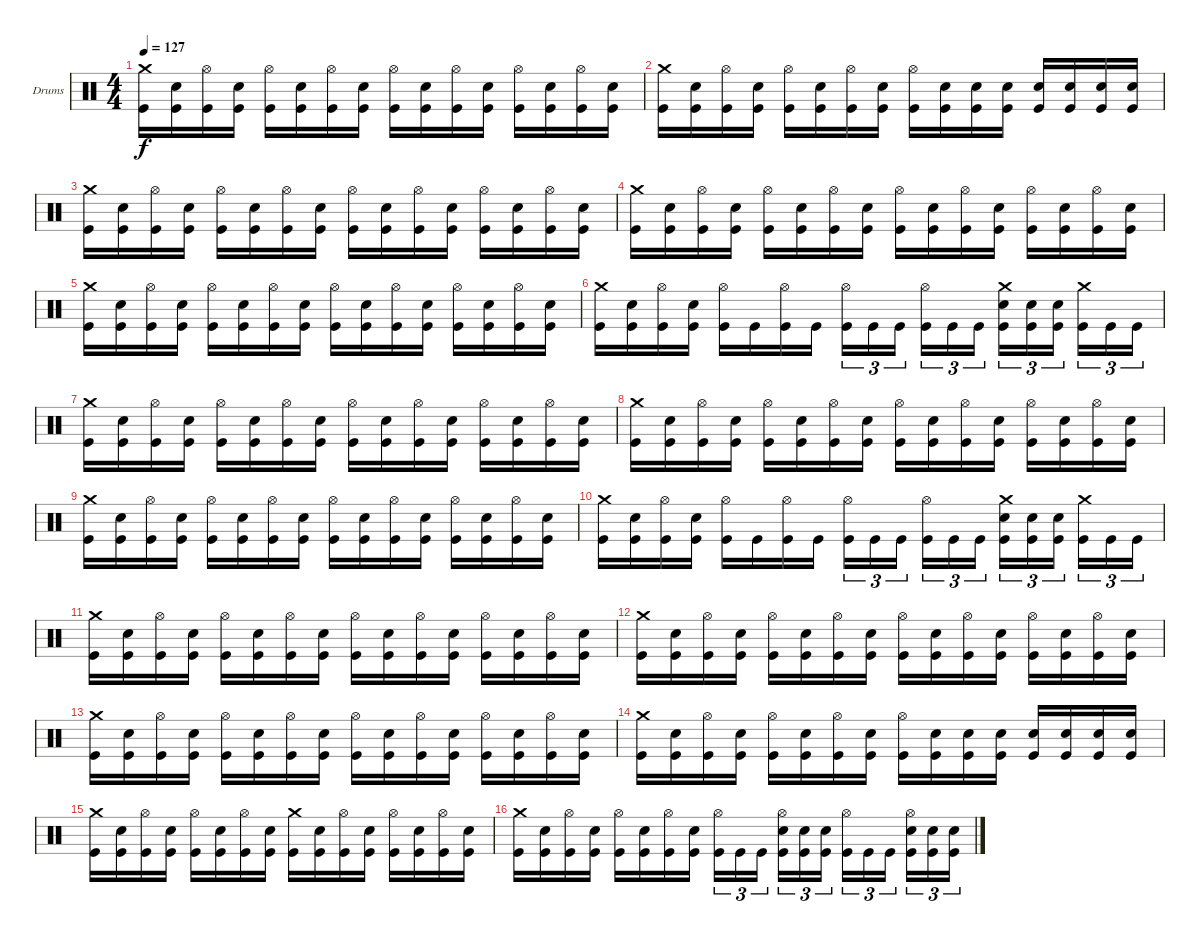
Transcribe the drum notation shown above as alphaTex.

\bracketExtendMode groupsimilarinstruments
\firstSystemTrackNameOrientation horizontal
\otherSystemsTrackNameOrientation horizontal
\track ("Drumkit" "Drums") {instrument percussion}
\staff {score}
\articulation defaults
\ts (4 4)
\tempo 127
\clef neutral
\ks c
("Crash medium (hit)" "Kick (hit)").16{dy f} ("Snare (hit) 2" "Kick (hit)").16 ("Hi-Hat (open)" "Kick (hit)").16 ("Snare (hit) 2" "Kick (hit)").16 ("Hi-Hat (open)" "Kick (hit)").16 ("Snare (hit) 2" "Kick (hit)").16 ("Hi-Hat (open)" "Kick (hit)").16 ("Snare (hit) 2" "Kick (hit)").16 ("Hi-Hat (open)" "Kick (hit)").16 ("Snare (hit) 2" "Kick (hit)").16 ("Hi-Hat (open)" "Kick (hit)").16 ("Snare (hit) 2" "Kick (hit)").16 ("Hi-Hat (open)" "Kick (hit)").16 ("Snare (hit) 2" "Kick (hit)").16 ("Hi-Hat (open)" "Kick (hit)").16 ("Snare (hit) 2" "Kick (hit)").16 |
("Crash medium (hit)" "Kick (hit)").16 ("Snare (hit) 2" "Kick (hit)").16 ("Hi-Hat (open)" "Kick (hit)").16 ("Snare (hit) 2" "Kick (hit)").16 ("Hi-Hat (open)" "Kick (hit)").16 ("Snare (hit) 2" "Kick (hit)").16 ("Hi-Hat (open)" "Kick (hit)").16 ("Snare (hit) 2" "Kick (hit)").16 ("Hi-Hat (open)" "Kick (hit)").16 ("Snare (hit) 2" "Kick (hit)").16 ("Snare (hit) 2" "Kick (hit)").16 ("Snare (hit) 2" "Kick (hit)").16 ("Snare (hit) 2" "Kick (hit)").16 ("Snare (hit) 2" "Kick (hit)").16 ("Snare (hit) 2" "Kick (hit)").16 ("Snare (hit) 2" "Kick (hit)").16 |
("Crash medium (hit)" "Kick (hit)").16 ("Snare (hit) 2" "Kick (hit)").16 ("Hi-Hat (open)" "Kick (hit)").16 ("Snare (hit) 2" "Kick (hit)").16 ("Hi-Hat (open)" "Kick (hit)").16 ("Snare (hit) 2" "Kick (hit)").16 ("Hi-Hat (open)" "Kick (hit)").16 ("Snare (hit) 2" "Kick (hit)").16 ("Hi-Hat (open)" "Kick (hit)").16 ("Snare (hit) 2" "Kick (hit)").16 ("Hi-Hat (open)" "Kick (hit)").16 ("Snare (hit) 2" "Kick (hit)").16 ("Hi-Hat (open)" "Kick (hit)").16 ("Snare (hit) 2" "Kick (hit)").16 ("Hi-Hat (open)" "Kick (hit)").16 ("Snare (hit) 2" "Kick (hit)").16 |
("Crash medium (hit)" "Kick (hit)").16 ("Snare (hit) 2" "Kick (hit)").16 ("Hi-Hat (open)" "Kick (hit)").16 ("Snare (hit) 2" "Kick (hit)").16 ("Hi-Hat (open)" "Kick (hit)").16 ("Snare (hit) 2" "Kick (hit)").16 ("Hi-Hat (open)" "Kick (hit)").16 ("Snare (hit) 2" "Kick (hit)").16 ("Hi-Hat (open)" "Kick (hit)").16 ("Snare (hit) 2" "Kick (hit)").16 ("Hi-Hat (open)" "Kick (hit)").16 ("Snare (hit) 2" "Kick (hit)").16 ("Hi-Hat (open)" "Kick (hit)").16 ("Snare (hit) 2" "Kick (hit)").16 ("Hi-Hat (open)" "Kick (hit)").16 ("Snare (hit) 2" "Kick (hit)").16 |
("Crash medium (hit)" "Kick (hit)").16 ("Snare (hit) 2" "Kick (hit)").16 ("Hi-Hat (open)" "Kick (hit)").16 ("Snare (hit) 2" "Kick (hit)").16 ("Hi-Hat (open)" "Kick (hit)").16 ("Snare (hit) 2" "Kick (hit)").16 ("Hi-Hat (open)" "Kick (hit)").16 ("Snare (hit) 2" "Kick (hit)").16 ("Hi-Hat (open)" "Kick (hit)").16 ("Snare (hit) 2" "Kick (hit)").16 ("Hi-Hat (open)" "Kick (hit)").16 ("Snare (hit) 2" "Kick (hit)").16 ("Hi-Hat (open)" "Kick (hit)").16 ("Snare (hit) 2" "Kick (hit)").16 ("Hi-Hat (open)" "Kick (hit)").16 ("Snare (hit) 2" "Kick (hit)").16 |
("Crash medium (hit)" "Kick (hit)").16 ("Snare (hit) 2" "Kick (hit)").16 ("Hi-Hat (open)" "Kick (hit)").16 ("Snare (hit) 2" "Kick (hit)").16 ("Hi-Hat (open)" "Kick (hit)").16 "Kick (hit)".16 ("Hi-Hat (open)" "Kick (hit)").16 "Kick (hit)".16 ("Hi-Hat (open)" "Kick (hit)").16{tu (3 2)} "Kick (hit)".16{tu (3 2)} "Kick (hit)".16{tu (3 2)} ("Hi-Hat (open)" "Kick (hit)").16{tu (3 2)} "Kick (hit)".16{tu (3 2)} "Kick (hit)".16{tu (3 2)} ("Crash medium (hit)" "Snare (hit) 2" "Kick (hit)").16{tu (3 2)} ("Snare (hit) 2" "Kick (hit)").16{tu (3 2)} ("Snare (hit) 2" "Kick (hit)").16{tu (3 2)} ("Crash medium (hit)" "Kick (hit)").16{tu (3 2)} "Kick (hit)".16{tu (3 2)} "Kick (hit)".16{tu (3 2)} |
("Crash medium (hit)" "Kick (hit)").16 ("Snare (hit) 2" "Kick (hit)").16 ("Hi-Hat (open)" "Kick (hit)").16 ("Snare (hit) 2" "Kick (hit)").16 ("Hi-Hat (open)" "Kick (hit)").16 ("Snare (hit) 2" "Kick (hit)").16 ("Hi-Hat (open)" "Kick (hit)").16 ("Snare (hit) 2" "Kick (hit)").16 ("Hi-Hat (open)" "Kick (hit)").16 ("Snare (hit) 2" "Kick (hit)").16 ("Hi-Hat (open)" "Kick (hit)").16 ("Snare (hit) 2" "Kick (hit)").16 ("Hi-Hat (open)" "Kick (hit)").16 ("Snare (hit) 2" "Kick (hit)").16 ("Hi-Hat (open)" "Kick (hit)").16 ("Snare (hit) 2" "Kick (hit)").16 |
("Crash medium (hit)" "Kick (hit)").16 ("Snare (hit) 2" "Kick (hit)").16 ("Hi-Hat (open)" "Kick (hit)").16 ("Snare (hit) 2" "Kick (hit)").16 ("Hi-Hat (open)" "Kick (hit)").16 ("Snare (hit) 2" "Kick (hit)").16 ("Hi-Hat (open)" "Kick (hit)").16 ("Snare (hit) 2" "Kick (hit)").16 ("Hi-Hat (open)" "Kick (hit)").16 ("Snare (hit) 2" "Kick (hit)").16 ("Hi-Hat (open)" "Kick (hit)").16 ("Snare (hit) 2" "Kick (hit)").16 ("Hi-Hat (open)" "Kick (hit)").16 ("Snare (hit) 2" "Kick (hit)").16 ("Hi-Hat (open)" "Kick (hit)").16 ("Snare (hit) 2" "Kick (hit)").16 |
("Crash medium (hit)" "Kick (hit)").16 ("Snare (hit) 2" "Kick (hit)").16 ("Hi-Hat (open)" "Kick (hit)").16 ("Snare (hit) 2" "Kick (hit)").16 ("Hi-Hat (open)" "Kick (hit)").16 ("Snare (hit) 2" "Kick (hit)").16 ("Hi-Hat (open)" "Kick (hit)").16 ("Snare (hit) 2" "Kick (hit)").16 ("Hi-Hat (open)" "Kick (hit)").16 ("Snare (hit) 2" "Kick (hit)").16 ("Hi-Hat (open)" "Kick (hit)").16 ("Snare (hit) 2" "Kick (hit)").16 ("Hi-Hat (open)" "Kick (hit)").16 ("Snare (hit) 2" "Kick (hit)").16 ("Hi-Hat (open)" "Kick (hit)").16 ("Snare (hit) 2" "Kick (hit)").16 |
("Crash medium (hit)" "Kick (hit)").16 ("Snare (hit) 2" "Kick (hit)").16 ("Hi-Hat (open)" "Kick (hit)").16 ("Snare (hit) 2" "Kick (hit)").16 ("Hi-Hat (open)" "Kick (hit)").16 "Kick (hit)".16 ("Hi-Hat (open)" "Kick (hit)").16 "Kick (hit)".16 ("Hi-Hat (open)" "Kick (hit)").16{tu (3 2)} "Kick (hit)".16{tu (3 2)} "Kick (hit)".16{tu (3 2)} ("Hi-Hat (open)" "Kick (hit)").16{tu (3 2)} "Kick (hit)".16{tu (3 2)} "Kick (hit)".16{tu (3 2)} ("Crash medium (hit)" "Snare (hit) 2" "Kick (hit)").16{tu (3 2)} ("Snare (hit) 2" "Kick (hit)").16{tu (3 2)} ("Snare (hit) 2" "Kick (hit)").16{tu (3 2)} ("Crash medium (hit)" "Kick (hit)").16{tu (3 2)} "Kick (hit)".16{tu (3 2)} "Kick (hit)".16{tu (3 2)} |
("Crash medium (hit)" "Kick (hit)").16 ("Snare (hit) 2" "Kick (hit)").16 ("Hi-Hat (open)" "Kick (hit)").16 ("Snare (hit) 2" "Kick (hit)").16 ("Hi-Hat (open)" "Kick (hit)").16 ("Snare (hit) 2" "Kick (hit)").16 ("Hi-Hat (open)" "Kick (hit)").16 ("Snare (hit) 2" "Kick (hit)").16 ("Hi-Hat (open)" "Kick (hit)").16 ("Snare (hit) 2" "Kick (hit)").16 ("Hi-Hat (open)" "Kick (hit)").16 ("Snare (hit) 2" "Kick (hit)").16 ("Hi-Hat (open)" "Kick (hit)").16 ("Snare (hit) 2" "Kick (hit)").16 ("Hi-Hat (open)" "Kick (hit)").16 ("Snare (hit) 2" "Kick (hit)").16 |
("Crash medium (hit)" "Kick (hit)").16 ("Snare (hit) 2" "Kick (hit)").16 ("Hi-Hat (open)" "Kick (hit)").16 ("Snare (hit) 2" "Kick (hit)").16 ("Hi-Hat (open)" "Kick (hit)").16 ("Snare (hit) 2" "Kick (hit)").16 ("Hi-Hat (open)" "Kick (hit)").16 ("Snare (hit) 2" "Kick (hit)").16 ("Hi-Hat (open)" "Kick (hit)").16 ("Snare (hit) 2" "Kick (hit)").16 ("Hi-Hat (open)" "Kick (hit)").16 ("Snare (hit) 2" "Kick (hit)").16 ("Hi-Hat (open)" "Kick (hit)").16 ("Snare (hit) 2" "Kick (hit)").16 ("Hi-Hat (open)" "Kick (hit)").16 ("Snare (hit) 2" "Kick (hit)").16 |
("Crash medium (hit)" "Kick (hit)").16 ("Snare (hit) 2" "Kick (hit)").16 ("Hi-Hat (open)" "Kick (hit)").16 ("Snare (hit) 2" "Kick (hit)").16 ("Hi-Hat (open)" "Kick (hit)").16 ("Snare (hit) 2" "Kick (hit)").16 ("Hi-Hat (open)" "Kick (hit)").16 ("Snare (hit) 2" "Kick (hit)").16 ("Hi-Hat (open)" "Kick (hit)").16 ("Snare (hit) 2" "Kick (hit)").16 ("Hi-Hat (open)" "Kick (hit)").16 ("Snare (hit) 2" "Kick (hit)").16 ("Hi-Hat (open)" "Kick (hit)").16 ("Snare (hit) 2" "Kick (hit)").16 ("Hi-Hat (open)" "Kick (hit)").16 ("Snare (hit) 2" "Kick (hit)").16 |
("Crash medium (hit)" "Kick (hit)").16 ("Snare (hit) 2" "Kick (hit)").16 ("Hi-Hat (open)" "Kick (hit)").16 ("Snare (hit) 2" "Kick (hit)").16 ("Hi-Hat (open)" "Kick (hit)").16 ("Snare (hit) 2" "Kick (hit)").16 ("Hi-Hat (open)" "Kick (hit)").16 ("Snare (hit) 2" "Kick (hit)").16 ("Hi-Hat (open)" "Kick (hit)").16 ("Snare (hit) 2" "Kick (hit)").16 ("Snare (hit) 2" "Kick (hit)").16 ("Snare (hit) 2" "Kick (hit)").16 ("Snare (hit) 2" "Kick (hit)").16 ("Snare (hit) 2" "Kick (hit)").16 ("Snare (hit) 2" "Kick (hit)").16 ("Snare (hit) 2" "Kick (hit)").16 |
("Crash medium (hit)" "Kick (hit)").16 ("Snare (hit) 2" "Kick (hit)").16 ("Hi-Hat (open)" "Kick (hit)").16 ("Snare (hit) 2" "Kick (hit)").16 ("Hi-Hat (open)" "Kick (hit)").16 ("Snare (hit) 2" "Kick (hit)").16 ("Hi-Hat (open)" "Kick (hit)").16 ("Snare (hit) 2" "Kick (hit)").16 ("Crash medium (hit)" "Kick (hit)").16 ("Snare (hit) 2" "Kick (hit)").16 ("Hi-Hat (open)" "Kick (hit)").16 ("Snare (hit) 2" "Kick (hit)").16 ("Hi-Hat (open)" "Kick (hit)").16 ("Snare (hit) 2" "Kick (hit)").16 ("Hi-Hat (open)" "Kick (hit)").16 ("Snare (hit) 2" "Kick (hit)").16 |
("Crash medium (hit)" "Kick (hit)").16 ("Snare (hit) 2" "Kick (hit)").16 ("Hi-Hat (open)" "Kick (hit)").16 ("Snare (hit) 2" "Kick (hit)").16 ("Hi-Hat (open)" "Kick (hit)").16 ("Snare (hit) 2" "Kick (hit)").16 ("Hi-Hat (open)" "Kick (hit)").16 ("Snare (hit) 2" "Kick (hit)").16 ("Hi-Hat (open)" "Kick (hit)").16{tu (3 2)} "Kick (hit)".16{tu (3 2)} "Kick (hit)".16{tu (3 2)} ("Hi-Hat (open)" "Snare (hit) 2" "Kick (hit)").16{tu (3 2)} ("Snare (hit) 2" "Kick (hit)").16{tu (3 2)} ("Snare (hit) 2" "Kick (hit)").16{tu (3 2)} ("Hi-Hat (open)" "Kick (hit)").16{tu (3 2)} "Kick (hit)".16{tu (3 2)} "Kick (hit)".16{tu (3 2)} ("Hi-Hat (open)" "Snare (hit) 2" "Kick (hit)").16{tu (3 2)} ("Snare (hit) 2" "Kick (hit)").16{tu (3 2)} ("Snare (hit) 2" "Kick (hit)").16{tu (3 2)}
